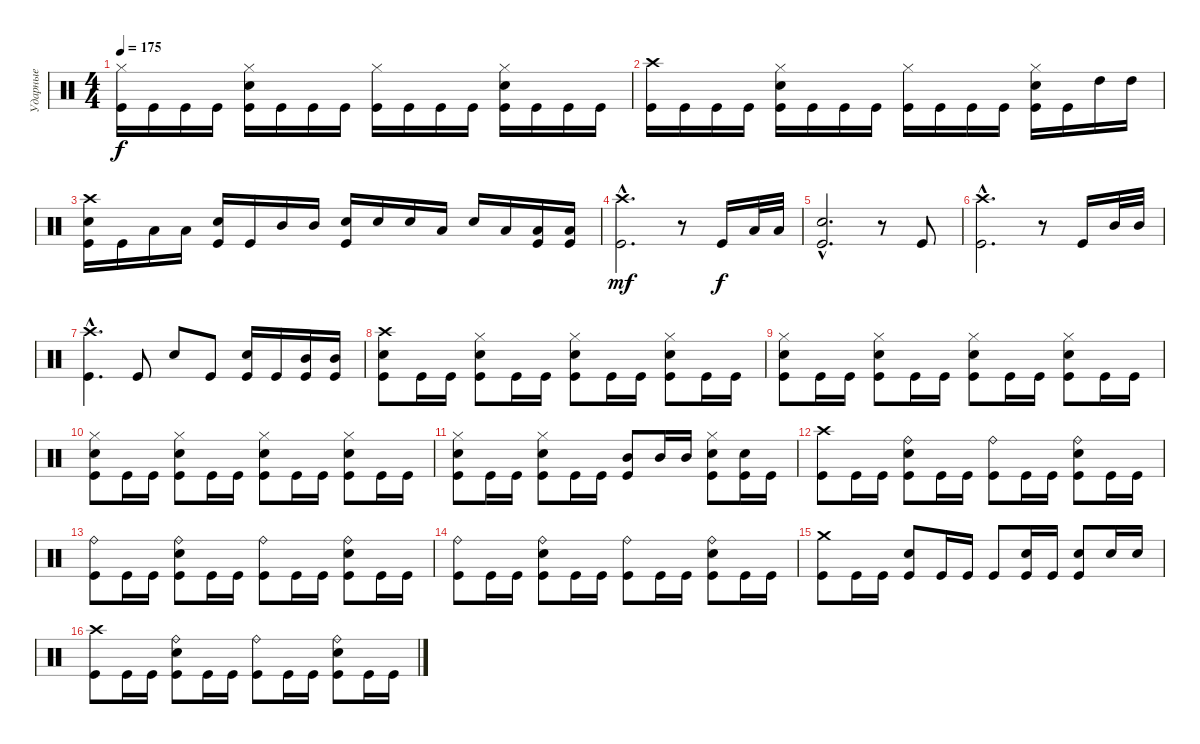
\track ("Ударные" "Ударные") {instrument percussion}
\staff {score}
\articulation defaults
\ts (4 4)
\tempo 175
\clef neutral
\ks c
("Hi-Hat (closed)" "Kick (hit)").16{dy f} "Kick (hit)".16 "Kick (hit)".16 "Kick (hit)".16 ("Hi-Hat (closed)" "Electric Snare (hit)" "Kick (hit)").16 "Kick (hit)".16 "Kick (hit)".16 "Kick (hit)".16 ("Hi-Hat (closed)" "Kick (hit)").16 "Kick (hit)".16 "Kick (hit)".16 "Kick (hit)".16 ("Hi-Hat (closed)" "Electric Snare (hit)" "Kick (hit)").16 "Kick (hit)".16 "Kick (hit)".16 "Kick (hit)".16 |
("Crash high (hit)" "Kick (hit)").16 "Kick (hit)".16 "Kick (hit)".16 "Kick (hit)".16 ("Hi-Hat (closed)" "Electric Snare (hit)" "Kick (hit)").16 "Kick (hit)".16 "Kick (hit)".16 "Kick (hit)".16 ("Hi-Hat (closed)" "Kick (hit)").16 "Kick (hit)".16 "Kick (hit)".16 "Kick (hit)".16 ("Hi-Hat (closed)" "Electric Snare (hit)" "Kick (hit)").16 "Kick (hit)".16 "High Tom (hit)".16 "High Tom (hit)".16 |
("Crash high (hit)" "Electric Snare (hit)" "Kick (hit)").16 "Kick (hit)".16 "Low Tom (hit)".16 "Low Tom (hit)".16 ("Electric Snare (hit)" "Kick (hit)").16 "Kick (hit)".16 "Mid Tom (hit)".16 "Mid Tom (hit)".16 ("Electric Snare (hit)" "Kick (hit)").16 "Electric Snare (hit)".16 "Electric Snare (hit)".16 "Low Tom (hit)".16 "Electric Snare (hit)".16 "Low Tom (hit)".16 ("Low Tom (hit)" "Kick (hit)").16 ("Low Tom (hit)" "Kick (hit)").16 |
("Crash high (hit)"{hac} "Kick (hit)"{hac}).2{d dy mf} r.8 "Kick (hit)".16{dy f} "Low Tom (hit)".32 "Low Tom (hit)".32 |
("Electric Snare (hit)"{hac} "Kick (hit)"{hac}).2{d} r.8 "Kick (hit)".8 |
("Crash high (hit)"{hac} "Kick (hit)"{hac}).2{d} r.8 "Kick (hit)".16 "Mid Tom (hit)".32 "Mid Tom (hit)".32 |
("Crash high (hit)"{hac} "Kick (hit)"{hac}).4{d} "Kick (hit)".8 "Electric Snare (hit)".8 "Kick (hit)".8 ("Electric Snare (hit)" "Kick (hit)").16 "Kick (hit)".16 ("Mid Tom (hit)" "Kick (hit)").16 ("Mid Tom (hit)" "Kick (hit)").16 |
("Crash high (hit)" "Electric Snare (hit)" "Kick (hit)").8 "Kick (hit)".16 "Kick (hit)".16 ("Hi-Hat (closed)" "Electric Snare (hit)" "Kick (hit)").8 "Kick (hit)".16 "Kick (hit)".16 ("Hi-Hat (closed)" "Electric Snare (hit)" "Kick (hit)").8 "Kick (hit)".16 "Kick (hit)".16 ("Hi-Hat (closed)" "Electric Snare (hit)" "Kick (hit)").8 "Kick (hit)".16 "Kick (hit)".16 |
("Hi-Hat (closed)" "Electric Snare (hit)" "Kick (hit)").8 "Kick (hit)".16 "Kick (hit)".16 ("Hi-Hat (closed)" "Electric Snare (hit)" "Kick (hit)").8 "Kick (hit)".16 "Kick (hit)".16 ("Hi-Hat (closed)" "Electric Snare (hit)" "Kick (hit)").8 "Kick (hit)".16 "Kick (hit)".16 ("Hi-Hat (closed)" "Electric Snare (hit)" "Kick (hit)").8 "Kick (hit)".16 "Kick (hit)".16 |
("Hi-Hat (closed)" "Electric Snare (hit)" "Kick (hit)").8 "Kick (hit)".16 "Kick (hit)".16 ("Hi-Hat (closed)" "Electric Snare (hit)" "Kick (hit)").8 "Kick (hit)".16 "Kick (hit)".16 ("Hi-Hat (closed)" "Electric Snare (hit)" "Kick (hit)").8 "Kick (hit)".16 "Kick (hit)".16 ("Hi-Hat (closed)" "Electric Snare (hit)" "Kick (hit)").8 "Kick (hit)".16 "Kick (hit)".16 |
("Hi-Hat (closed)" "Electric Snare (hit)" "Kick (hit)").8 "Kick (hit)".16 "Kick (hit)".16 ("Hi-Hat (closed)" "Electric Snare (hit)" "Kick (hit)").8 "Kick (hit)".16 "Kick (hit)".16 ("Mid Tom (hit)" "Kick (hit)").8 "Mid Tom (hit)".16 "Mid Tom (hit)".16 ("Hi-Hat (closed)" "Electric Snare (hit)" "Kick (hit)").8 ("Electric Snare (hit)" "Kick (hit)").16 "Kick (hit)".16 |
("Crash high (hit)" "Kick (hit)").8 "Kick (hit)".16 "Kick (hit)".16 ("Ride (bell)" "Electric Snare (hit)" "Kick (hit)").8 "Kick (hit)".16 "Kick (hit)".16 ("Ride (bell)" "Kick (hit)").8 "Kick (hit)".16 "Kick (hit)".16 ("Ride (bell)" "Electric Snare (hit)" "Kick (hit)").8 "Kick (hit)".16 "Kick (hit)".16 |
("Ride (bell)" "Kick (hit)").8 "Kick (hit)".16 "Kick (hit)".16 ("Ride (bell)" "Electric Snare (hit)" "Kick (hit)").8 "Kick (hit)".16 "Kick (hit)".16 ("Ride (bell)" "Kick (hit)").8 "Kick (hit)".16 "Kick (hit)".16 ("Ride (bell)" "Electric Snare (hit)" "Kick (hit)").8 "Kick (hit)".16 "Kick (hit)".16 |
("Ride (bell)" "Kick (hit)").8 "Kick (hit)".16 "Kick (hit)".16 ("Ride (bell)" "Electric Snare (hit)" "Kick (hit)").8 "Kick (hit)".16 "Kick (hit)".16 ("Ride (bell)" "Kick (hit)").8 "Kick (hit)".16 "Kick (hit)".16 ("Ride (bell)" "Electric Snare (hit)" "Kick (hit)").8 "Kick (hit)".16 "Kick (hit)".16 |
("Crash medium (hit)" "Kick (hit)").8 "Kick (hit)".16 "Kick (hit)".16 ("Electric Snare (hit)" "Kick (hit)").8 "Kick (hit)".16 "Kick (hit)".16 "Kick (hit)".8 ("Electric Snare (hit)" "Kick (hit)").16 "Kick (hit)".16 ("Electric Snare (hit)" "Kick (hit)").8 "Electric Snare (hit)".16 "Electric Snare (hit)".16 |
("Crash high (hit)" "Kick (hit)").8 "Kick (hit)".16 "Kick (hit)".16 ("Ride (bell)" "Electric Snare (hit)" "Kick (hit)").8 "Kick (hit)".16 "Kick (hit)".16 ("Ride (bell)" "Kick (hit)").8 "Kick (hit)".16 "Kick (hit)".16 ("Ride (bell)" "Electric Snare (hit)" "Kick (hit)").8 "Kick (hit)".16 "Kick (hit)".16
